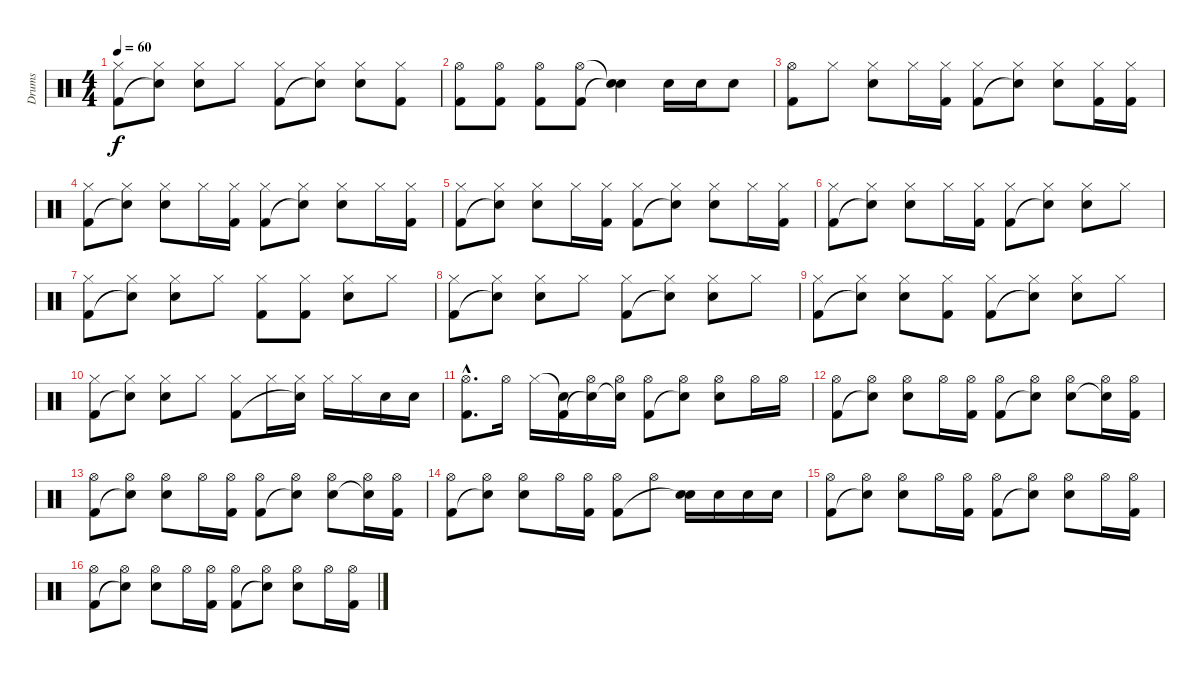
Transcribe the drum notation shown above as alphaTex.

\track ("Drums" "Drums") {instrument percussion}
\staff {score}
\articulation defaults
\ts (4 4)
\tempo 60
\clef neutral
\ks c
("Hi-Hat (closed)" "Kick (hit) 2").8{dy f} ("Hi-Hat (closed)" "Snare (hit)"{t}).8 ("Hi-Hat (closed)" "Snare (hit) 2").8 "Hi-Hat (closed)".8 ("Hi-Hat (closed)" "Kick (hit) 2").8 ("Hi-Hat (closed)" "Snare (hit)"{t}).8 ("Hi-Hat (closed)" "Snare (hit) 2").8 ("Hi-Hat (closed)" "Kick (hit) 2").8 |
("Hi-Hat (open)" "Kick (hit) 2").8 ("Hi-Hat (open)" "Kick (hit) 2").8 ("Hi-Hat (open)" "Kick (hit) 2").8 ("Hi-Hat (open)" "Kick (hit) 2").8 ("Snare (hit)"{t} "Snare (hit)"{t}).4 "Snare (hit) 2".16 "Snare (hit) 2".16 "Snare (hit) 2".8 |
("Hi-Hat (open)" "Kick (hit) 2").8 "Hi-Hat (closed)".8 ("Hi-Hat (closed)" "Snare (hit) 2").8 "Hi-Hat (closed)".16 ("Hi-Hat (closed)" "Kick (hit) 2").16 ("Hi-Hat (closed)" "Kick (hit) 2").8 ("Hi-Hat (closed)" "Snare (hit)"{t}).8 ("Hi-Hat (closed)" "Snare (hit) 2").8 ("Hi-Hat (closed)" "Kick (hit) 2").16 ("Hi-Hat (closed)" "Kick (hit) 2").16 |
("Hi-Hat (closed)" "Kick (hit) 2").8 ("Hi-Hat (closed)" "Snare (hit)"{t}).8 ("Hi-Hat (closed)" "Snare (hit) 2").8 "Hi-Hat (closed)".16 ("Hi-Hat (closed)" "Kick (hit) 2").16 ("Hi-Hat (closed)" "Kick (hit) 2").8 ("Hi-Hat (closed)" "Snare (hit)"{t}).8 ("Hi-Hat (closed)" "Snare (hit) 2").8 "Hi-Hat (closed)".16 ("Hi-Hat (closed)" "Kick (hit) 2").16 |
("Hi-Hat (closed)" "Kick (hit) 2").8 ("Hi-Hat (closed)" "Snare (hit)"{t}).8 ("Hi-Hat (closed)" "Snare (hit) 2").8 "Hi-Hat (closed)".16 ("Hi-Hat (closed)" "Kick (hit) 2").16 ("Hi-Hat (closed)" "Kick (hit) 2").8 ("Hi-Hat (closed)" "Snare (hit)"{t}).8 ("Hi-Hat (closed)" "Snare (hit) 2").8 "Hi-Hat (closed)".16 ("Hi-Hat (closed)" "Kick (hit) 2").16 |
("Hi-Hat (closed)" "Kick (hit) 2").8 ("Hi-Hat (closed)" "Snare (hit)"{t}).8 ("Hi-Hat (closed)" "Snare (hit) 2").8 "Hi-Hat (closed)".16 ("Hi-Hat (closed)" "Kick (hit) 2").16 ("Hi-Hat (closed)" "Kick (hit) 2").8 ("Hi-Hat (closed)" "Snare (hit)"{t}).8 ("Hi-Hat (closed)" "Snare (hit) 2").8 "Hi-Hat (closed)".8 |
("Hi-Hat (closed)" "Kick (hit) 2").8 ("Hi-Hat (closed)" "Snare (hit)"{t}).8 ("Hi-Hat (closed)" "Snare (hit) 2").8 "Hi-Hat (closed)".8 ("Hi-Hat (closed)" "Kick (hit) 2").8 ("Hi-Hat (closed)" "Kick (hit) 2").8 ("Hi-Hat (closed)" "Snare (hit) 2").8 "Hi-Hat (closed)".8 |
("Hi-Hat (closed)" "Kick (hit) 2").8 ("Hi-Hat (closed)" "Snare (hit)"{t}).8 ("Hi-Hat (closed)" "Snare (hit) 2").8 "Hi-Hat (closed)".8 ("Hi-Hat (closed)" "Kick (hit) 2").8 ("Hi-Hat (closed)" "Snare (hit)"{t}).8 ("Hi-Hat (closed)" "Snare (hit) 2").8 "Hi-Hat (closed)".8 |
("Hi-Hat (closed)" "Kick (hit) 2").8 ("Hi-Hat (closed)" "Snare (hit)"{t}).8 ("Hi-Hat (closed)" "Snare (hit) 2").8 ("Hi-Hat (closed)" "Kick (hit) 2").8 ("Hi-Hat (closed)" "Kick (hit) 2").8 ("Hi-Hat (closed)" "Snare (hit)"{t}).8 ("Hi-Hat (closed)" "Snare (hit) 2").8 "Hi-Hat (closed)".8 |
("Hi-Hat (closed)" "Kick (hit) 2").8 ("Hi-Hat (closed)" "Snare (hit)"{t}).8 ("Hi-Hat (closed)" "Snare (hit) 2").8 "Hi-Hat (closed)".8 ("Hi-Hat (closed)" "Kick (hit) 2").8 "Hi-Hat (closed)".16 ("Hi-Hat (closed)" "Snare (hit)"{t}).16 "Hi-Hat (closed)".16 "Hi-Hat (closed)".16 "Snare (hit) 2".16 "Snare (hit) 2".16 |
("Hi-Hat (open)"{hac} "Kick (hit) 2"{hac}).8{d} "Hi-Hat (open)".16 "Hi-Hat (closed)".16 ("Snare (hit)"{t} "Kick (hit) 2").16 ("Hi-Hat (open)" "Snare (hit)"{t}).16 ("Hi-Hat (open)" "Snare (hit)"{t}).16 ("Hi-Hat (open)" "Kick (hit) 2").8 ("Hi-Hat (open)" "Snare (hit)"{t}).8 ("Hi-Hat (open)" "Snare (hit) 2").8 "Hi-Hat (open)".16 "Hi-Hat (open)".16 |
("Hi-Hat (open)" "Kick (hit) 2").8 ("Hi-Hat (open)" "Snare (hit)"{t}).8 ("Hi-Hat (open)" "Snare (hit) 2").8 "Hi-Hat (open)".16 ("Hi-Hat (open)" "Kick (hit) 2").16 ("Hi-Hat (open)" "Kick (hit) 2").8 ("Hi-Hat (open)" "Snare (hit)"{t}).8 ("Hi-Hat (open)" "Snare (hit) 2").8 ("Hi-Hat (open)" "Snare (hit)"{t}).16 ("Hi-Hat (open)" "Kick (hit) 2").16 |
("Hi-Hat (open)" "Kick (hit) 2").8 ("Hi-Hat (open)" "Snare (hit)"{t}).8 ("Hi-Hat (open)" "Snare (hit) 2").8 "Hi-Hat (open)".16 ("Hi-Hat (open)" "Kick (hit) 2").16 ("Hi-Hat (open)" "Kick (hit) 2").8 ("Hi-Hat (open)" "Snare (hit)"{t}).8 ("Hi-Hat (open)" "Snare (hit) 2").8 ("Hi-Hat (open)" "Snare (hit)"{t}).16 ("Hi-Hat (open)" "Kick (hit) 2").16 |
("Hi-Hat (open)" "Kick (hit) 2").8 ("Hi-Hat (open)" "Snare (hit)"{t}).8 ("Hi-Hat (open)" "Snare (hit) 2").8 "Hi-Hat (open)".16 ("Hi-Hat (open)" "Kick (hit) 2").16 ("Hi-Hat (open)" "Kick (hit) 2").8 "Hi-Hat (open)".8 ("Snare (hit) 2" "Snare (hit)"{t}).16 "Snare (hit) 2".16 "Snare (hit) 2".16 "Snare (hit) 2".16 |
("Hi-Hat (open)" "Kick (hit) 2").8 ("Hi-Hat (open)" "Snare (hit)"{t}).8 ("Hi-Hat (open)" "Snare (hit) 2").8 "Hi-Hat (open)".16 ("Hi-Hat (open)" "Kick (hit) 2").16 ("Hi-Hat (open)" "Kick (hit) 2").8 ("Hi-Hat (open)" "Snare (hit)"{t}).8 ("Hi-Hat (open)" "Snare (hit) 2").8 "Hi-Hat (open)".16 ("Hi-Hat (open)" "Kick (hit) 2").16 |
("Hi-Hat (open)" "Kick (hit) 2").8 ("Hi-Hat (open)" "Snare (hit)"{t}).8 ("Hi-Hat (open)" "Snare (hit) 2").8 "Hi-Hat (open)".16 ("Hi-Hat (open)" "Kick (hit) 2").16 ("Hi-Hat (open)" "Kick (hit) 2").8 ("Hi-Hat (open)" "Snare (hit)"{t}).8 ("Hi-Hat (open)" "Snare (hit) 2").8 "Hi-Hat (open)".16 ("Hi-Hat (open)" "Kick (hit) 2").16
